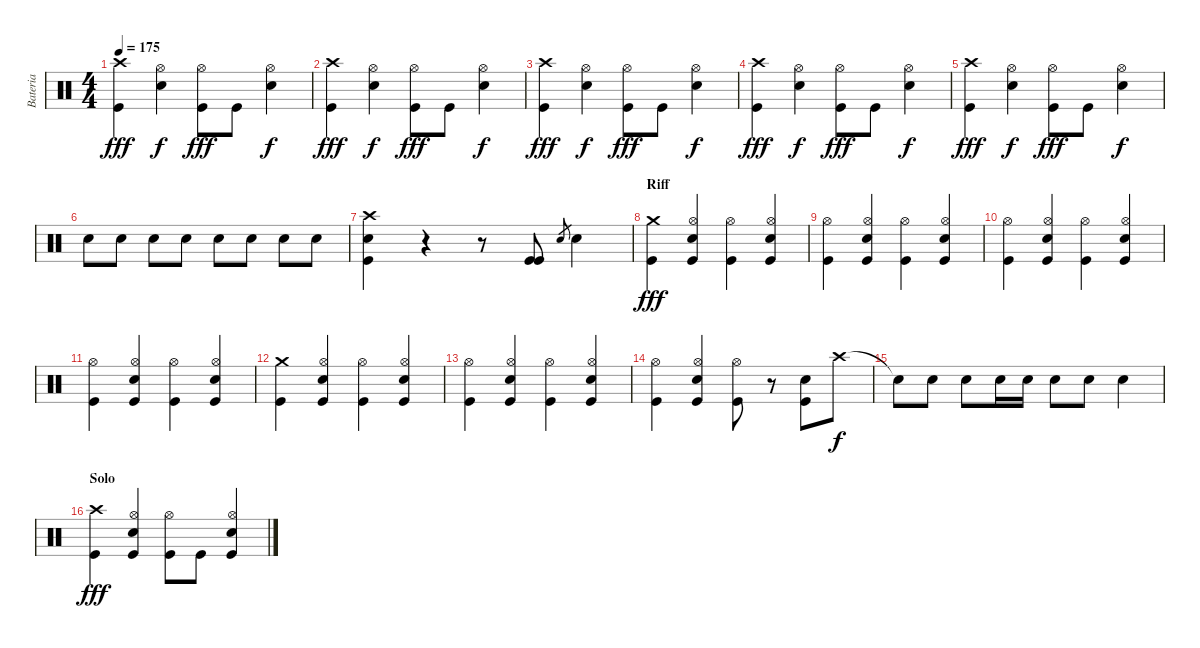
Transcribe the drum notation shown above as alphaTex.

\track ("Bateria" "Bateria") {instrument percussion}
\staff {score}
\articulation defaults
\ts (4 4)
\tempo 175
\clef neutral
\ks c
("Crash high (hit)" "Kick (hit)").4{dy fff} ("Hi-Hat (open)" "Electric Snare (hit)").4{dy f} ("Hi-Hat (open)" "Kick (hit)").8{dy fff} "Kick (hit)".8 ("Hi-Hat (open)" "Electric Snare (hit)").4{dy f} |
("Crash high (hit)" "Kick (hit)").4{dy fff} ("Hi-Hat (open)" "Electric Snare (hit)").4{dy f} ("Hi-Hat (open)" "Kick (hit)").8{dy fff} "Kick (hit)".8 ("Hi-Hat (open)" "Electric Snare (hit)").4{dy f} |
("Crash high (hit)" "Kick (hit)").4{dy fff} ("Hi-Hat (open)" "Electric Snare (hit)").4{dy f} ("Hi-Hat (open)" "Kick (hit)").8{dy fff} "Kick (hit)".8 ("Hi-Hat (open)" "Electric Snare (hit)").4{dy f} |
("Crash high (hit)" "Kick (hit)").4{dy fff} ("Hi-Hat (open)" "Electric Snare (hit)").4{dy f} ("Hi-Hat (open)" "Kick (hit)").8{dy fff} "Kick (hit)".8 ("Hi-Hat (open)" "Electric Snare (hit)").4{dy f} |
("Crash high (hit)" "Kick (hit)").4{dy fff} ("Hi-Hat (open)" "Electric Snare (hit)").4{dy f} ("Hi-Hat (open)" "Kick (hit)").8{dy fff} "Kick (hit)".8 ("Hi-Hat (open)" "Electric Snare (hit)").4{dy f} |
"Electric Snare (hit)".8 "Electric Snare (hit)".8 "Electric Snare (hit)".8 "Electric Snare (hit)".8 "Electric Snare (hit)".8 "Electric Snare (hit)".8 "Electric Snare (hit)".8 "Electric Snare (hit)".8 |
("Crash high (hit)" "Electric Snare (hit)" "Kick (hit)").4 r.4 r.8 ("Kick (hit)" "Kick (hit)").8 "Electric Snare (hit)".8{gr} "Electric Snare (hit)".4 |
\section ("" "Riff")
("Crash medium (hit)" "Kick (hit)").4{dy fff} ("Hi-Hat (open)" "Electric Snare (hit)" "Kick (hit)").4 ("Hi-Hat (open)" "Kick (hit)").4 ("Hi-Hat (open)" "Electric Snare (hit)" "Kick (hit)").4 |
("Hi-Hat (open)" "Kick (hit)").4 ("Hi-Hat (open)" "Electric Snare (hit)" "Kick (hit)").4 ("Hi-Hat (open)" "Kick (hit)").4 ("Hi-Hat (open)" "Electric Snare (hit)" "Kick (hit)").4 |
("Hi-Hat (open)" "Kick (hit)").4 ("Hi-Hat (open)" "Electric Snare (hit)" "Kick (hit)").4 ("Hi-Hat (open)" "Kick (hit)").4 ("Hi-Hat (open)" "Electric Snare (hit)" "Kick (hit)").4 |
("Hi-Hat (open)" "Kick (hit)").4 ("Hi-Hat (open)" "Electric Snare (hit)" "Kick (hit)").4 ("Hi-Hat (open)" "Kick (hit)").4 ("Hi-Hat (open)" "Electric Snare (hit)" "Kick (hit)").4 |
("Crash medium (hit)" "Kick (hit)").4 ("Hi-Hat (open)" "Electric Snare (hit)" "Kick (hit)").4 ("Hi-Hat (open)" "Kick (hit)").4 ("Hi-Hat (open)" "Electric Snare (hit)" "Kick (hit)").4 |
("Hi-Hat (open)" "Kick (hit)").4 ("Hi-Hat (open)" "Electric Snare (hit)" "Kick (hit)").4 ("Hi-Hat (open)" "Kick (hit)").4 ("Hi-Hat (open)" "Electric Snare (hit)" "Kick (hit)").4 |
("Hi-Hat (open)" "Kick (hit)").4 ("Hi-Hat (open)" "Electric Snare (hit)" "Kick (hit)").4 ("Hi-Hat (open)" "Kick (hit)").8 r.8 ("Electric Snare (hit)" "Kick (hit)").8 "Crash high (hit)".8{dy f} |
"Snare (hit)"{t}.8 "Electric Snare (hit)".8 "Electric Snare (hit)".8 "Electric Snare (hit)".16 "Electric Snare (hit)".16 "Electric Snare (hit)".8 "Electric Snare (hit)".8 "Electric Snare (hit)".4 |
\section ("" "Solo")
("Crash high (hit)" "Kick (hit)").4{dy fff} ("Hi-Hat (open)" "Electric Snare (hit)" "Kick (hit)").4 ("Hi-Hat (open)" "Kick (hit)").8 "Kick (hit)".8 ("Hi-Hat (open)" "Electric Snare (hit)" "Kick (hit)").4
